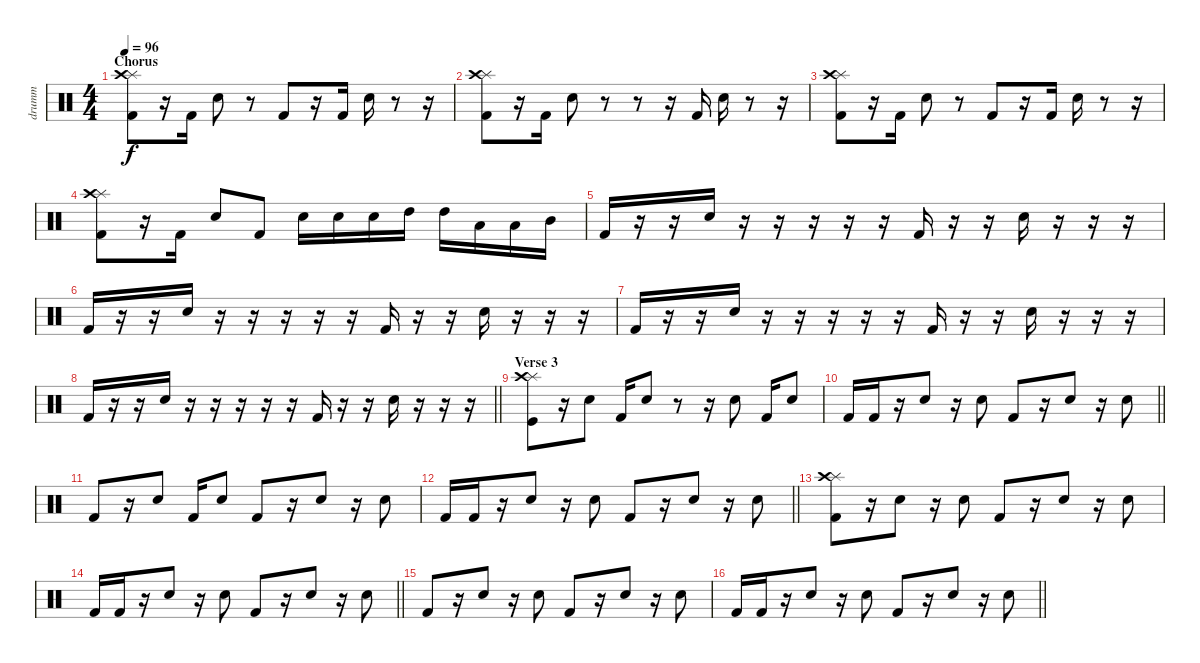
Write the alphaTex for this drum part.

\track ("drumm" "drumm") {instrument percussion}
\staff {score}
\articulation defaults
\ts (4 4)
\section ("" "Chorus")
\tempo 96
\clef neutral
\ks c
("Splash (hit)" "Crash high (hit)" "Kick (hit) 2").8{dy f} r.16 "Kick (hit) 2".16 "Electric Snare (hit)".8 r.8 "Kick (hit) 2".8 r.16 "Kick (hit) 2".16 "Electric Snare (hit)".16 r.8 r.16 |
("Splash (hit)" "Crash high (hit)" "Kick (hit) 2").8 r.16 "Kick (hit) 2".16 "Electric Snare (hit)".8 r.8 r.8 r.16 "Kick (hit) 2".16 "Electric Snare (hit)".16 r.8 r.16 |
("Splash (hit)" "Crash high (hit)" "Kick (hit) 2").8 r.16 "Kick (hit) 2".16 "Electric Snare (hit)".8 r.8 "Kick (hit) 2".8 r.16 "Kick (hit) 2".16 "Electric Snare (hit)".16 r.8 r.16 |
("Splash (hit)" "Crash high (hit)" "Kick (hit) 2").8 r.16 "Kick (hit) 2".16 "Electric Snare (hit)".8 "Kick (hit) 2".8 "Electric Snare (hit)".16 "Electric Snare (hit)".16 "Electric Snare (hit)".16 "High Tom (hit)".16 "High Tom (hit)".16 "Low Tom (hit)".16 "Low Tom (hit)".16 "Mid Tom (hit)".16 |
"Kick (hit) 2".16 r.16 r.16 "Electric Snare (hit)".16 r.16 r.16 r.16 r.16 r.16 "Kick (hit) 2".16 r.16 r.16 "Electric Snare (hit)".16 r.16 r.16 r.16 |
"Kick (hit) 2".16 r.16 r.16 "Electric Snare (hit)".16 r.16 r.16 r.16 r.16 r.16 "Kick (hit) 2".16 r.16 r.16 "Electric Snare (hit)".16 r.16 r.16 r.16 |
"Kick (hit) 2".16 r.16 r.16 "Electric Snare (hit)".16 r.16 r.16 r.16 r.16 r.16 "Kick (hit) 2".16 r.16 r.16 "Electric Snare (hit)".16 r.16 r.16 r.16 |
\barLineRight lightlight "Kick (hit) 2".16
r.16 r.16 "Electric Snare (hit)".16 r.16 r.16 r.16 r.16 r.16 "Kick (hit) 2".16 r.16 r.16 "Electric Snare (hit)".16 r.16 r.16 r.16 |
\section ("" "Verse 3")
("Splash (hit)" "Crash high (hit)" "Kick (hit)").8 r.16 "Electric Snare (hit)".8 "Kick (hit) 2".16 "Electric Snare (hit)".8 r.8 r.16 "Electric Snare (hit)".8 "Kick (hit) 2".16 "Electric Snare (hit)".8 |
\barLineRight lightlight "Kick (hit) 2".16 "Kick (hit) 2".16
r.16 "Electric Snare (hit)".8 r.16 "Electric Snare (hit)".8 "Kick (hit) 2".8 r.16 "Electric Snare (hit)".8 r.16 "Electric Snare (hit)".8 |
"Kick (hit) 2".8 r.16 "Electric Snare (hit)".8 "Kick (hit) 2".16 "Electric Snare (hit)".8 "Kick (hit) 2".8 r.16 "Electric Snare (hit)".8 r.16 "Electric Snare (hit)".8 |
\barLineRight lightlight "Kick (hit) 2".16 "Kick (hit) 2".16
r.16 "Electric Snare (hit)".8 r.16 "Electric Snare (hit)".8 "Kick (hit) 2".8 r.16 "Electric Snare (hit)".8 r.16 "Electric Snare (hit)".8 |
("Splash (hit)" "Crash high (hit)" "Kick (hit) 2").8 r.16 "Electric Snare (hit)".8 r.16 "Electric Snare (hit)".8 "Kick (hit) 2".8 r.16 "Electric Snare (hit)".8 r.16 "Electric Snare (hit)".8 |
\barLineRight lightlight "Kick (hit) 2".16 "Kick (hit) 2".16
r.16 "Electric Snare (hit)".8 r.16 "Electric Snare (hit)".8 "Kick (hit) 2".8 r.16 "Electric Snare (hit)".8 r.16 "Electric Snare (hit)".8 |
"Kick (hit) 2".8 r.16 "Electric Snare (hit)".8 r.16 "Electric Snare (hit)".8 "Kick (hit) 2".8 r.16 "Electric Snare (hit)".8 r.16 "Electric Snare (hit)".8 |
\barLineRight lightlight "Kick (hit) 2".16 "Kick (hit) 2".16
r.16 "Electric Snare (hit)".8 r.16 "Electric Snare (hit)".8 "Kick (hit) 2".8 r.16 "Electric Snare (hit)".8 r.16 "Electric Snare (hit)".8
